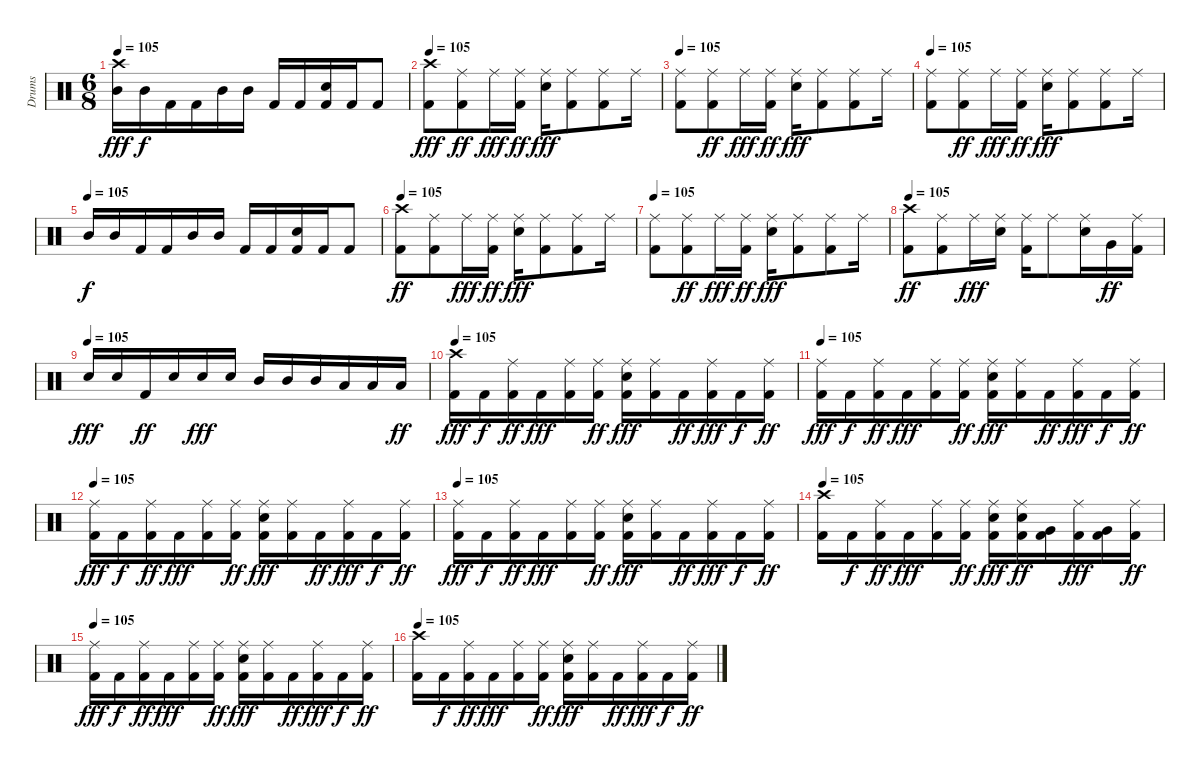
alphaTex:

\track ("Drums" "Drums") {instrument percussion}
\staff {score}
\articulation defaults
\ts (6 8)
\tempo 105
\clef neutral
\ks c
("Mid Tom (hit)" "Crash high (hit)").16{dy fff} "Mid Tom (hit)".16{dy f} "Kick (hit) 2".16 "Kick (hit) 2".16 "Mid Tom (hit)".16 "Mid Tom (hit)".16 "Kick (hit) 2".16 "Kick (hit) 2".16 ("Electric Snare (hit)" "Kick (hit) 2").16 "Kick (hit) 2".16 "Kick (hit) 2".8 |
\tempo 105
("Kick (hit) 2" "Crash high (hit)").8{dy fff} ("Ride (middle)" "Kick (hit) 2").8{dy ff} "Ride (middle)".16{dy fff} ("Ride (middle)" "Kick (hit) 2").16{dy ff} ("Ride (middle)" "Electric Snare (hit)").16{dy fff} ("Ride (middle)" "Kick (hit) 2").8 ("Ride (middle)" "Kick (hit) 2").8 "Ride (middle)".16 |
\tempo 105
("Ride (middle)" "Kick (hit) 2").8 ("Ride (middle)" "Kick (hit) 2").8{dy ff} "Ride (middle)".16{dy fff} ("Ride (middle)" "Kick (hit) 2").16{dy ff} ("Ride (middle)" "Electric Snare (hit)").16{dy fff} ("Ride (middle)" "Kick (hit) 2").8 ("Ride (middle)" "Kick (hit) 2").8 "Ride (middle)".16 |
\tempo 105
("Ride (middle)" "Kick (hit) 2").8 ("Ride (middle)" "Kick (hit) 2").8{dy ff} "Ride (middle)".16{dy fff} ("Ride (middle)" "Kick (hit) 2").16{dy ff} ("Ride (middle)" "Electric Snare (hit)").16{dy fff} ("Ride (middle)" "Kick (hit) 2").8 ("Ride (middle)" "Kick (hit) 2").8 "Ride (middle)".16 |
\tempo (105)
"Mid Tom (hit)".16{dy f} "Mid Tom (hit)".16 "Kick (hit) 2".16 "Kick (hit) 2".16 "Mid Tom (hit)".16 "Mid Tom (hit)".16 "Kick (hit) 2".16 "Kick (hit) 2".16 ("Electric Snare (hit)" "Kick (hit) 2").16 "Kick (hit) 2".16 "Kick (hit) 2".8 |
\tempo 105
("Kick (hit) 2" "Crash high (hit)").8{dy ff} ("Ride (middle)" "Kick (hit) 2").8 "Ride (middle)".16{dy fff} ("Ride (middle)" "Kick (hit) 2").16{dy ff} ("Ride (middle)" "Electric Snare (hit)").16{dy fff} ("Ride (middle)" "Kick (hit) 2").8 ("Ride (middle)" "Kick (hit) 2").8 "Ride (middle)".16 |
\tempo 105
("Ride (middle)" "Kick (hit) 2").8 ("Ride (middle)" "Kick (hit) 2").8{dy ff} "Ride (middle)".16{dy fff} ("Ride (middle)" "Kick (hit) 2").16{dy ff} ("Ride (middle)" "Electric Snare (hit)").16{dy fff} ("Ride (middle)" "Kick (hit) 2").8 ("Ride (middle)" "Kick (hit) 2").8 "Ride (middle)".16 |
\tempo 105
("Kick (hit) 2" "Crash high (hit)").8{dy ff} ("Ride (middle)" "Kick (hit) 2").8 "Ride (middle)".16{dy fff} ("Ride (middle)" "Electric Snare (hit)").16 ("Ride (middle)" "Kick (hit) 2").16 "Ride (middle)".8 ("Ride (middle)" "Electric Snare (hit)").16 "Very Low Tom (hit)".16{dy ff} ("Ride (middle)" "Kick (hit) 2").16 |
\tempo (105)
"Electric Snare (hit)".16{dy fff} "Electric Snare (hit)".16 "Kick (hit) 2".16{dy ff} "Snare (hit) 2".16 "Snare (hit) 2".16{dy fff} "Snare (hit) 2".16 "Mid Tom (hit)".16 "Mid Tom (hit)".16 "Mid Tom (hit)".16 "Low Tom (hit)".16 "Low Tom (hit)".16 "Low Tom (hit)".16{dy ff} |
\tempo 105
("Kick (hit) 2" "Crash high (hit)").16{dy fff} "Kick (hit) 2".16{dy f} ("Ride (middle)" "Kick (hit) 2").16{dy ff} "Kick (hit) 2".16{dy fff} ("Ride (middle)" "Kick (hit) 2").16 ("Ride (middle)" "Kick (hit) 2").16{dy ff} ("Ride (middle)" "Electric Snare (hit)" "Kick (hit) 2").16{dy fff} ("Ride (middle)" "Kick (hit) 2").16 "Kick (hit) 2".16{dy ff} ("Ride (middle)" "Kick (hit) 2").16{dy fff} "Kick (hit) 2".16{dy f} ("Ride (middle)" "Kick (hit) 2").16{dy ff} |
\tempo 105
("Ride (middle)" "Kick (hit) 2").16{dy fff} "Kick (hit) 2".16{dy f} ("Ride (middle)" "Kick (hit) 2").16{dy ff} "Kick (hit) 2".16{dy fff} ("Ride (middle)" "Kick (hit) 2").16 ("Ride (middle)" "Kick (hit) 2").16{dy ff} ("Ride (middle)" "Electric Snare (hit)" "Kick (hit) 2").16{dy fff} ("Ride (middle)" "Kick (hit) 2").16 "Kick (hit) 2".16{dy ff} ("Ride (middle)" "Kick (hit) 2").16{dy fff} "Kick (hit) 2".16{dy f} ("Ride (middle)" "Kick (hit) 2").16{dy ff} |
\tempo 105
("Ride (middle)" "Kick (hit) 2").16{dy fff} "Kick (hit) 2".16{dy f} ("Ride (middle)" "Kick (hit) 2").16{dy ff} "Kick (hit) 2".16{dy fff} ("Ride (middle)" "Kick (hit) 2").16 ("Ride (middle)" "Kick (hit) 2").16{dy ff} ("Ride (middle)" "Kick (hit) 2" "Electric Snare (hit)").16{dy fff} ("Ride (middle)" "Kick (hit) 2").16 "Kick (hit) 2".16{dy ff} ("Ride (middle)" "Kick (hit) 2").16{dy fff} "Kick (hit) 2".16{dy f} ("Ride (middle)" "Kick (hit) 2").16{dy ff} |
\tempo 105
("Ride (middle)" "Kick (hit) 2").16{dy fff} "Kick (hit) 2".16{dy f} ("Ride (middle)" "Kick (hit) 2").16{dy ff} "Kick (hit) 2".16{dy fff} ("Ride (middle)" "Kick (hit) 2").16 ("Ride (middle)" "Kick (hit) 2").16{dy ff} ("Ride (middle)" "Electric Snare (hit)" "Kick (hit) 2").16{dy fff} ("Ride (middle)" "Kick (hit) 2").16 "Kick (hit) 2".16{dy ff} ("Ride (middle)" "Kick (hit) 2").16{dy fff} "Kick (hit) 2".16{dy f} ("Ride (middle)" "Kick (hit) 2").16{dy ff} |
\tempo 105
("Kick (hit) 2" "Crash high (hit)").16 "Kick (hit) 2".16{dy f} ("Ride (middle)" "Kick (hit) 2").16{dy ff} "Kick (hit) 2".16{dy fff} ("Ride (middle)" "Kick (hit) 2").16 ("Ride (middle)" "Kick (hit) 2").16{dy ff} ("Ride (middle)" "Electric Snare (hit)" "Kick (hit) 2").16{dy fff} ("Ride (middle)" "Electric Snare (hit)" "Kick (hit) 2").16{dy ff} ("Very Low Tom (hit)" "Kick (hit) 2").16 ("Ride (middle)" "Kick (hit) 2").16{dy fff} ("Very Low Tom (hit)" "Kick (hit) 2").16 ("Ride (middle)" "Kick (hit) 2").16{dy ff} |
\tempo 105
("Ride (middle)" "Kick (hit) 2").16{dy fff} "Kick (hit) 2".16{dy f} ("Ride (middle)" "Kick (hit) 2").16{dy ff} "Kick (hit) 2".16{dy fff} ("Ride (middle)" "Kick (hit) 2").16 ("Ride (middle)" "Kick (hit) 2").16{dy ff} ("Ride (middle)" "Electric Snare (hit)" "Kick (hit) 2").16{dy fff} ("Ride (middle)" "Kick (hit) 2").16 "Kick (hit) 2".16{dy ff} ("Ride (middle)" "Kick (hit) 2").16{dy fff} "Kick (hit) 2".16{dy f} ("Ride (middle)" "Kick (hit) 2").16{dy ff} |
\tempo 105
("Kick (hit) 2" "Crash high (hit)").16 "Kick (hit) 2".16{dy f} ("Ride (middle)" "Kick (hit) 2").16{dy ff} "Kick (hit) 2".16{dy fff} ("Ride (middle)" "Kick (hit) 2").16 ("Ride (middle)" "Kick (hit) 2").16{dy ff} ("Ride (middle)" "Electric Snare (hit)" "Kick (hit) 2").16{dy fff} ("Ride (middle)" "Kick (hit) 2").16 "Kick (hit) 2".16{dy ff} ("Ride (middle)" "Kick (hit) 2").16{dy fff} "Kick (hit) 2".16{dy f} ("Ride (middle)" "Kick (hit) 2").16{dy ff}
